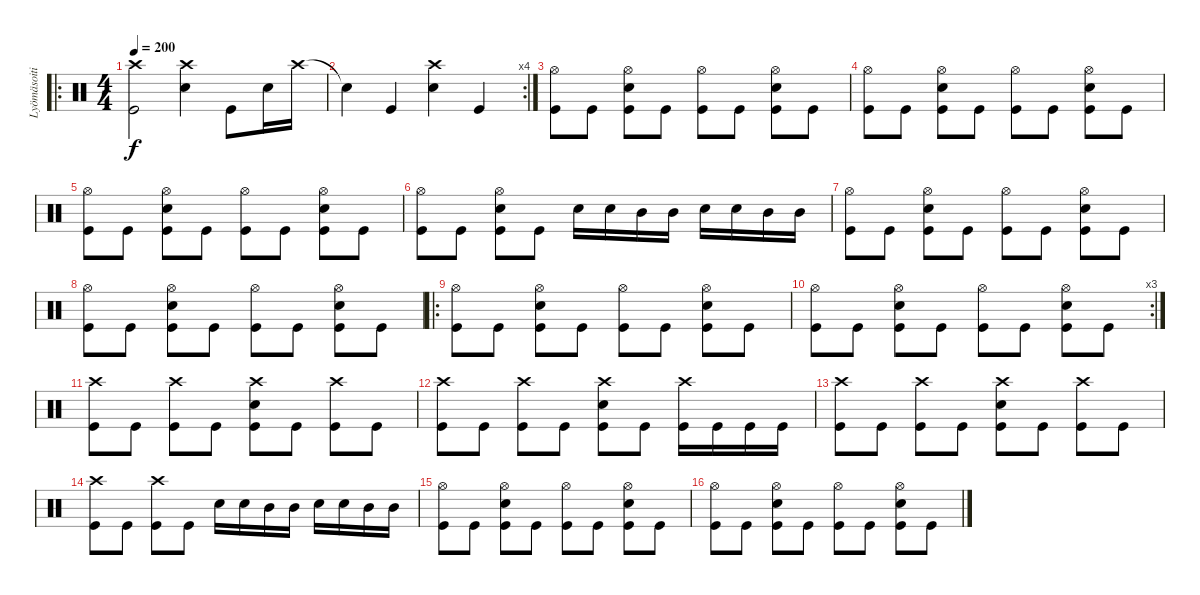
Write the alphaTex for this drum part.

\track ("Lyömäsoitin" "Lyömäsoiti") {instrument percussion}
\staff {score}
\articulation defaults
\ro
\ts (4 4)
\tempo 200
\clef neutral
\ks c
("Crash high (hit)" "Kick (hit)").2{dy f} ("Crash high (hit)" "Snare (hit) 2").4 "Kick (hit)".8 "Snare (hit) 2".16 "Crash high (hit)".16 |
\rc 4 "Snare (hit)"{t}.4 "Kick (hit)".4
("Crash high (hit)" "Snare (hit) 2").4 "Kick (hit)".4 |
("Hi-Hat (open)" "Kick (hit)").8 "Kick (hit)".8 ("Snare (hit) 2" "Hi-Hat (open)" "Kick (hit)").8 "Kick (hit)".8 ("Hi-Hat (open)" "Kick (hit)").8 "Kick (hit)".8 ("Snare (hit) 2" "Hi-Hat (open)" "Kick (hit)").8 "Kick (hit)".8 |
("Hi-Hat (open)" "Kick (hit)").8 "Kick (hit)".8 ("Snare (hit) 2" "Hi-Hat (open)" "Kick (hit)").8 "Kick (hit)".8 ("Hi-Hat (open)" "Kick (hit)").8 "Kick (hit)".8 ("Snare (hit) 2" "Hi-Hat (open)" "Kick (hit)").8 "Kick (hit)".8 |
("Hi-Hat (open)" "Kick (hit)").8 "Kick (hit)".8 ("Snare (hit) 2" "Hi-Hat (open)" "Kick (hit)").8 "Kick (hit)".8 ("Hi-Hat (open)" "Kick (hit)").8 "Kick (hit)".8 ("Snare (hit) 2" "Hi-Hat (open)" "Kick (hit)").8 "Kick (hit)".8 |
("Hi-Hat (open)" "Kick (hit)").8 "Kick (hit)".8 ("Snare (hit) 2" "Hi-Hat (open)" "Kick (hit)").8 "Kick (hit)".8 "Snare (hit) 2".16 "Snare (hit) 2".16 "Mid Tom (hit)".16 "Mid Tom (hit)".16 "Snare (hit) 2".16 "Snare (hit) 2".16 "Mid Tom (hit)".16 "Mid Tom (hit)".16 |
("Hi-Hat (open)" "Kick (hit)").8 "Kick (hit)".8 ("Snare (hit) 2" "Hi-Hat (open)" "Kick (hit)").8 "Kick (hit)".8 ("Hi-Hat (open)" "Kick (hit)").8 "Kick (hit)".8 ("Snare (hit) 2" "Hi-Hat (open)" "Kick (hit)").8 "Kick (hit)".8 |
("Hi-Hat (open)" "Kick (hit)").8 "Kick (hit)".8 ("Snare (hit) 2" "Hi-Hat (open)" "Kick (hit)").8 "Kick (hit)".8 ("Hi-Hat (open)" "Kick (hit)").8 "Kick (hit)".8 ("Snare (hit) 2" "Hi-Hat (open)" "Kick (hit)").8 "Kick (hit)".8 |
\ro
("Hi-Hat (open)" "Kick (hit)").8 "Kick (hit)".8 ("Snare (hit) 2" "Hi-Hat (open)" "Kick (hit)").8 "Kick (hit)".8 ("Hi-Hat (open)" "Kick (hit)").8 "Kick (hit)".8 ("Snare (hit) 2" "Hi-Hat (open)" "Kick (hit)").8 "Kick (hit)".8 |
\rc 3
("Hi-Hat (open)" "Kick (hit)").8 "Kick (hit)".8 ("Snare (hit) 2" "Hi-Hat (open)" "Kick (hit)").8 "Kick (hit)".8 ("Hi-Hat (open)" "Kick (hit)").8 "Kick (hit)".8 ("Snare (hit) 2" "Hi-Hat (open)" "Kick (hit)").8 "Kick (hit)".8 |
("Crash high (hit)" "Kick (hit)").8 "Kick (hit)".8 ("Crash high (hit)" "Kick (hit)").8 "Kick (hit)".8 ("Snare (hit) 2" "Crash high (hit)" "Kick (hit)").8 "Kick (hit)".8 ("Crash high (hit)" "Kick (hit)").8 "Kick (hit)".8 |
("Crash high (hit)" "Kick (hit)").8 "Kick (hit)".8 ("Crash high (hit)" "Kick (hit)").8 "Kick (hit)".8 ("Snare (hit) 2" "Crash high (hit)" "Kick (hit)").8 "Kick (hit)".8 ("Crash high (hit)" "Kick (hit)").16 "Kick (hit)".16 "Kick (hit)".16 "Kick (hit)".16 |
("Crash high (hit)" "Kick (hit)").8 "Kick (hit)".8 ("Crash high (hit)" "Kick (hit)").8 "Kick (hit)".8 ("Snare (hit) 2" "Crash high (hit)" "Kick (hit)").8 "Kick (hit)".8 ("Crash high (hit)" "Kick (hit)").8 "Kick (hit)".8 |
("Crash high (hit)" "Kick (hit)").8 "Kick (hit)".8 ("Crash high (hit)" "Kick (hit)").8 "Kick (hit)".8 "Snare (hit) 2".16 "Snare (hit) 2".16 "Mid Tom (hit)".16 "Mid Tom (hit)".16 "Snare (hit) 2".16 "Snare (hit) 2".16 "Mid Tom (hit)".16 "Mid Tom (hit)".16 |
("Hi-Hat (open)" "Kick (hit)").8 "Kick (hit)".8 ("Snare (hit) 2" "Hi-Hat (open)" "Kick (hit)").8 "Kick (hit)".8 ("Hi-Hat (open)" "Kick (hit)").8 "Kick (hit)".8 ("Snare (hit) 2" "Hi-Hat (open)" "Kick (hit)").8 "Kick (hit)".8 |
("Hi-Hat (open)" "Kick (hit)").8 "Kick (hit)".8 ("Snare (hit) 2" "Hi-Hat (open)" "Kick (hit)").8 "Kick (hit)".8 ("Hi-Hat (open)" "Kick (hit)").8 "Kick (hit)".8 ("Snare (hit) 2" "Hi-Hat (open)" "Kick (hit)").8 "Kick (hit)".8
